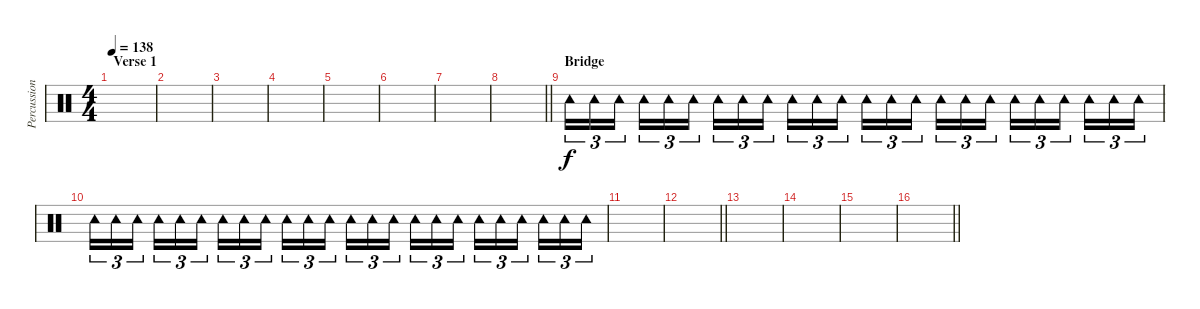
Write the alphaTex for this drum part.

\track ("Percussions" "Percussion") {instrument percussion}
\staff
\articulation defaults
\ts (4 4)
\section ("" "Verse 1")
\tempo 138
\clef neutral
\ks c
|
|
|
|
|
|
|
\barLineRight lightlight
|
\section ("" "Bridge")
"Tambourine (hit)".16{tu (3 2) volume 0} "Tambourine (hit)".16{tu (3 2)} "Tambourine (hit)".16{tu (3 2) beam splitsecondary} "Tambourine (hit)".16{tu (3 2)} "Tambourine (hit)".16{tu (3 2)} "Tambourine (hit)".16{tu (3 2)} "Tambourine (hit)".16{tu (3 2)} "Tambourine (hit)".16{tu (3 2)} "Tambourine (hit)".16{tu (3 2) beam splitsecondary} "Tambourine (hit)".16{tu (3 2)} "Tambourine (hit)".16{tu (3 2)} "Tambourine (hit)".16{tu (3 2)} "Tambourine (hit)".16{tu (3 2)} "Tambourine (hit)".16{tu (3 2)} "Tambourine (hit)".16{tu (3 2) beam splitsecondary} "Tambourine (hit)".16{tu (3 2)} "Tambourine (hit)".16{tu (3 2)} "Tambourine (hit)".16{tu (3 2)} "Tambourine (hit)".16{tu (3 2)} "Tambourine (hit)".16{tu (3 2)} "Tambourine (hit)".16{tu (3 2) beam splitsecondary} "Tambourine (hit)".16{tu (3 2)} "Tambourine (hit)".16{tu (3 2)} "Tambourine (hit)".16{tu (3 2)} |
"Tambourine (hit)".16{tu (3 2)} "Tambourine (hit)".16{tu (3 2)} "Tambourine (hit)".16{tu (3 2) beam splitsecondary} "Tambourine (hit)".16{tu (3 2)} "Tambourine (hit)".16{tu (3 2)} "Tambourine (hit)".16{tu (3 2)} "Tambourine (hit)".16{tu (3 2)} "Tambourine (hit)".16{tu (3 2)} "Tambourine (hit)".16{tu (3 2) beam splitsecondary} "Tambourine (hit)".16{tu (3 2)} "Tambourine (hit)".16{tu (3 2)} "Tambourine (hit)".16{tu (3 2)} "Tambourine (hit)".16{tu (3 2)} "Tambourine (hit)".16{tu (3 2)} "Tambourine (hit)".16{tu (3 2) beam splitsecondary} "Tambourine (hit)".16{tu (3 2)} "Tambourine (hit)".16{tu (3 2)} "Tambourine (hit)".16{tu (3 2)} "Tambourine (hit)".16{tu (3 2)} "Tambourine (hit)".16{tu (3 2)} "Tambourine (hit)".16{tu (3 2) beam splitsecondary} "Tambourine (hit)".16{tu (3 2)} "Tambourine (hit)".16{tu (3 2)} "Tambourine (hit)".16{tu (3 2)} |
|
\barLineRight lightlight
|
|
|
|
\barLineRight lightlight
